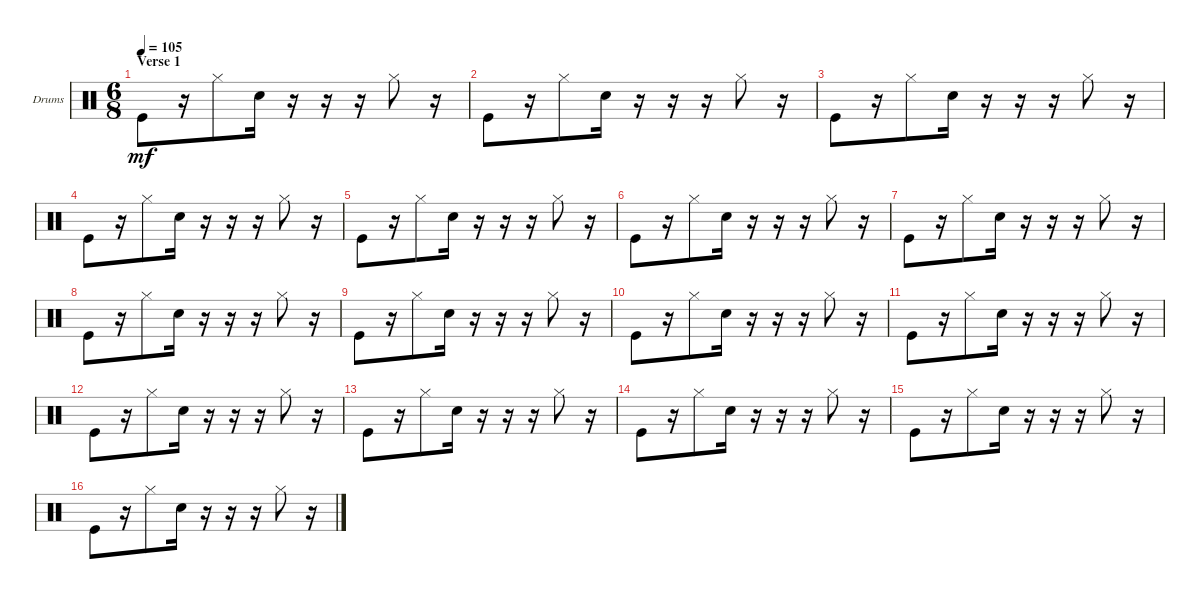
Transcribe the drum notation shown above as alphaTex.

\defaultSystemsLayout 4
\bracketExtendMode nobrackets
\firstSystemTrackNameOrientation horizontal
\otherSystemsTrackNameOrientation horizontal
\track ("Drumkit" "Drums") {instrument percussion}
\staff {score}
\articulation defaults
\ts (6 8)
\section ("" "Verse 1")
\tempo 105
\clef neutral
\ks c "Kick (hit)".8{dy mf}
r.16 "Hi-Hat (closed)".8 "Snare (hit) 2".16 r.16 r.16 r.16 "Hi-Hat (closed)".8 r.16 |
"Kick (hit)".8 r.16 "Hi-Hat (closed)".8 "Snare (hit) 2".16 r.16 r.16 r.16 "Hi-Hat (closed)".8 r.16 |
"Kick (hit)".8 r.16 "Hi-Hat (closed)".8 "Snare (hit) 2".16 r.16 r.16 r.16 "Hi-Hat (closed)".8 r.16 |
"Kick (hit)".8 r.16 "Hi-Hat (closed)".8 "Snare (hit) 2".16 r.16 r.16 r.16 "Hi-Hat (closed)".8 r.16 |
"Kick (hit)".8 r.16 "Hi-Hat (closed)".8 "Snare (hit) 2".16 r.16 r.16 r.16 "Hi-Hat (closed)".8 r.16 |
"Kick (hit)".8 r.16 "Hi-Hat (closed)".8 "Snare (hit) 2".16 r.16 r.16 r.16 "Hi-Hat (closed)".8 r.16 |
"Kick (hit)".8 r.16 "Hi-Hat (closed)".8 "Snare (hit) 2".16 r.16 r.16 r.16 "Hi-Hat (closed)".8 r.16 |
"Kick (hit)".8 r.16 "Hi-Hat (closed)".8 "Snare (hit) 2".16 r.16 r.16 r.16 "Hi-Hat (closed)".8 r.16 |
"Kick (hit)".8 r.16 "Hi-Hat (closed)".8 "Snare (hit) 2".16 r.16 r.16 r.16 "Hi-Hat (closed)".8 r.16 |
"Kick (hit)".8 r.16 "Hi-Hat (closed)".8 "Snare (hit) 2".16 r.16 r.16 r.16 "Hi-Hat (closed)".8 r.16 |
"Kick (hit)".8 r.16 "Hi-Hat (closed)".8 "Snare (hit) 2".16 r.16 r.16 r.16 "Hi-Hat (closed)".8 r.16 |
"Kick (hit)".8 r.16 "Hi-Hat (closed)".8 "Snare (hit) 2".16 r.16 r.16 r.16 "Hi-Hat (closed)".8 r.16 |
"Kick (hit)".8 r.16 "Hi-Hat (closed)".8 "Snare (hit) 2".16 r.16 r.16 r.16 "Hi-Hat (closed)".8 r.16 |
"Kick (hit)".8 r.16 "Hi-Hat (closed)".8 "Snare (hit) 2".16 r.16 r.16 r.16 "Hi-Hat (closed)".8 r.16 |
"Kick (hit)".8 r.16 "Hi-Hat (closed)".8 "Snare (hit) 2".16 r.16 r.16 r.16 "Hi-Hat (closed)".8 r.16 |
"Kick (hit)".8 r.16 "Hi-Hat (closed)".8 "Snare (hit) 2".16 r.16 r.16 r.16 "Hi-Hat (closed)".8 r.16
